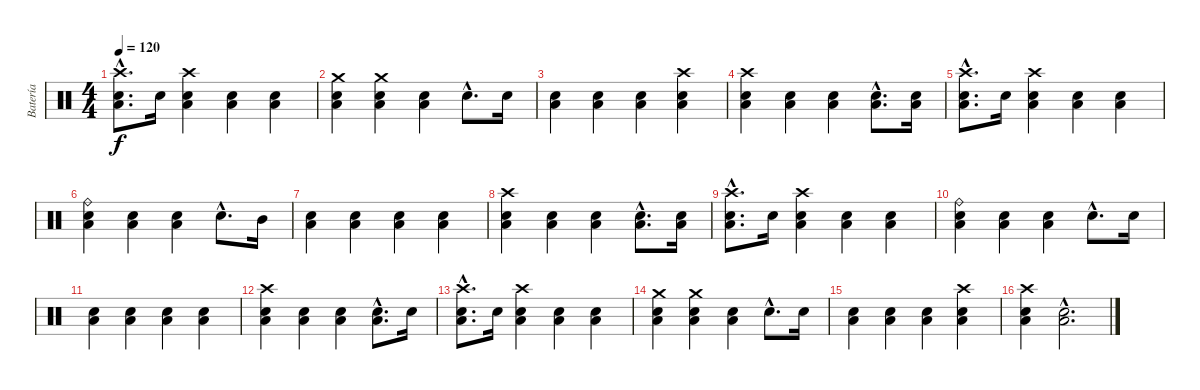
\track ("Batería" "Batería") {instrument percussion}
\staff {score}
\articulation defaults
\ts (4 4)
\tempo 120
\clef neutral
\ks c
("Crash high (hit)"{hac} "Low Tom (hit)"{hac} "Electric Snare (hit)"{hac}).8{d dy f} "Electric Snare (hit)".16 ("Crash high (hit)" "Low Tom (hit)" "Electric Snare (hit)").4 ("Low Tom (hit)" "Electric Snare (hit)").4 ("Low Tom (hit)" "Electric Snare (hit)").4 |
("Crash medium (hit)" "Low Tom (hit)" "Electric Snare (hit)").4 ("Crash medium (hit)" "Low Tom (hit)" "Electric Snare (hit)").4 ("Low Tom (hit)" "Electric Snare (hit)").4 "Electric Snare (hit)"{hac}.8{d} "Electric Snare (hit)".16 |
("Low Tom (hit)" "Electric Snare (hit)").4 ("Low Tom (hit)" "Electric Snare (hit)").4 ("Low Tom (hit)" "Electric Snare (hit)").4 ("Crash high (hit)" "Low Tom (hit)" "Electric Snare (hit)").4 |
("Crash high (hit)" "Low Tom (hit)" "Electric Snare (hit)").4 ("Low Tom (hit)" "Electric Snare (hit)").4 ("Low Tom (hit)" "Electric Snare (hit)").4 ("Low Tom (hit)"{hac} "Electric Snare (hit)"{hac}).8{d} ("Low Tom (hit)" "Electric Snare (hit)").16 |
("Crash high (hit)"{hac} "Low Tom (hit)"{hac} "Electric Snare (hit)"{hac}).8{d} "Electric Snare (hit)".16 ("Crash high (hit)" "Low Tom (hit)" "Electric Snare (hit)").4 ("Low Tom (hit)" "Electric Snare (hit)").4 ("Low Tom (hit)" "Electric Snare (hit)").4 |
("Ride (bell)" "Low Tom (hit)" "Electric Snare (hit)").4 ("Low Tom (hit)" "Electric Snare (hit)").4 ("Low Tom (hit)" "Electric Snare (hit)").4 "Electric Snare (hit)"{hac}.8{d} "Mid Tom (hit)".16 |
("Low Tom (hit)" "Electric Snare (hit)").4 ("Low Tom (hit)" "Electric Snare (hit)").4 ("Low Tom (hit)" "Electric Snare (hit)").4 ("Low Tom (hit)" "Electric Snare (hit)").4 |
("Crash high (hit)" "Low Tom (hit)" "Electric Snare (hit)").4 ("Low Tom (hit)" "Electric Snare (hit)").4 ("Low Tom (hit)" "Electric Snare (hit)").4 ("Low Tom (hit)"{hac} "Electric Snare (hit)"{hac}).8{d} ("Low Tom (hit)" "Electric Snare (hit)").16 |
("Crash high (hit)"{hac} "Low Tom (hit)"{hac} "Electric Snare (hit)"{hac}).8{d} "Electric Snare (hit)".16 ("Crash high (hit)" "Low Tom (hit)" "Electric Snare (hit)").4 ("Low Tom (hit)" "Electric Snare (hit)").4 ("Low Tom (hit)" "Electric Snare (hit)").4 |
("Ride (bell)" "Low Tom (hit)" "Electric Snare (hit)").4 ("Low Tom (hit)" "Electric Snare (hit)").4 ("Low Tom (hit)" "Electric Snare (hit)").4 "Electric Snare (hit)"{hac}.8{d} "Electric Snare (hit)".16 |
("Low Tom (hit)" "Electric Snare (hit)").4 ("Low Tom (hit)" "Electric Snare (hit)").4 ("Low Tom (hit)" "Electric Snare (hit)").4 ("Low Tom (hit)" "Electric Snare (hit)").4 |
("Crash high (hit)" "Low Tom (hit)" "Electric Snare (hit)").4 ("Low Tom (hit)" "Electric Snare (hit)").4 ("Low Tom (hit)" "Electric Snare (hit)").4 ("Low Tom (hit)"{hac} "Electric Snare (hit)"{hac}).8{d} "Electric Snare (hit)".16 |
("Crash high (hit)"{hac} "Low Tom (hit)"{hac} "Electric Snare (hit)"{hac}).8{d} "Electric Snare (hit)".16 ("Crash high (hit)" "Low Tom (hit)" "Electric Snare (hit)").4 ("Low Tom (hit)" "Electric Snare (hit)").4 ("Low Tom (hit)" "Electric Snare (hit)").4 |
("Crash medium (hit)" "Low Tom (hit)" "Electric Snare (hit)").4 ("Crash medium (hit)" "Low Tom (hit)" "Electric Snare (hit)").4 ("Low Tom (hit)" "Electric Snare (hit)").4 "Electric Snare (hit)"{hac}.8{d} "Electric Snare (hit)".16 |
("Low Tom (hit)" "Electric Snare (hit)").4 ("Low Tom (hit)" "Electric Snare (hit)").4 ("Low Tom (hit)" "Electric Snare (hit)").4 ("Crash high (hit)" "Low Tom (hit)" "Electric Snare (hit)").4 |
("Crash high (hit)" "Low Tom (hit)" "Electric Snare (hit)").4 ("Low Tom (hit)"{hac} "Electric Snare (hit)"{hac}).2{d}
